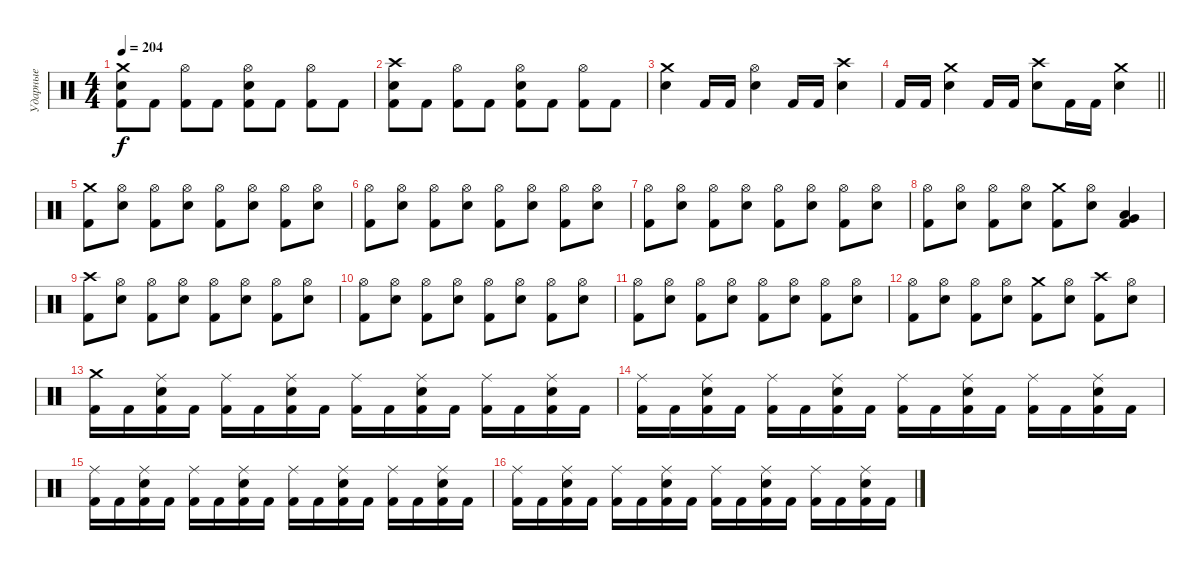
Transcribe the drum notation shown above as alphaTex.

\track ("Ударные" "Ударные") {instrument percussion}
\staff {score}
\articulation defaults
\ts (4 4)
\tempo 204
\clef neutral
\ks c
("Crash medium (hit)" "Snare (hit) 2" "Kick (hit) 2").8{dy f} "Kick (hit) 2".8 ("Hi-Hat (open)" "Kick (hit) 2").8 "Kick (hit) 2".8 ("Hi-Hat (open)" "Snare (hit) 2" "Kick (hit) 2").8 "Kick (hit) 2".8 ("Hi-Hat (open)" "Kick (hit) 2").8 "Kick (hit) 2".8 |
("Crash high (hit)" "Snare (hit) 2" "Kick (hit) 2").8 "Kick (hit) 2".8 ("Hi-Hat (open)" "Kick (hit) 2").8 "Kick (hit) 2".8 ("Hi-Hat (open)" "Snare (hit) 2" "Kick (hit) 2").8 "Kick (hit) 2".8 ("Hi-Hat (open)" "Kick (hit) 2").8 "Kick (hit) 2".8 |
("Crash medium (hit)" "Snare (hit) 2").4 "Kick (hit) 2".16 "Kick (hit) 2".16 ("Hi-Hat (open)" "Snare (hit) 2").4 "Kick (hit) 2".16 "Kick (hit) 2".16 ("Crash high (hit)" "Snare (hit) 2").4 |
\barLineRight lightlight "Kick (hit) 2".16 "Kick (hit) 2".16
("Crash medium (hit)" "Snare (hit) 2").4 "Kick (hit) 2".16 "Kick (hit) 2".16 ("Crash high (hit)" "Snare (hit) 2").8 "Kick (hit) 2".16 "Kick (hit) 2".16 ("Crash medium (hit)" "Snare (hit) 2").4 |
("Crash medium (hit)" "Kick (hit) 2").8 ("Hi-Hat (open)" "Snare (hit) 2").8 ("Hi-Hat (open)" "Kick (hit) 2").8 ("Hi-Hat (open)" "Snare (hit) 2").8 ("Hi-Hat (open)" "Kick (hit) 2").8 ("Hi-Hat (open)" "Snare (hit) 2").8 ("Hi-Hat (open)" "Kick (hit) 2").8 ("Hi-Hat (open)" "Snare (hit) 2").8 |
("Hi-Hat (open)" "Kick (hit) 2").8 ("Hi-Hat (open)" "Snare (hit) 2").8 ("Hi-Hat (open)" "Kick (hit) 2").8 ("Hi-Hat (open)" "Snare (hit) 2").8 ("Hi-Hat (open)" "Kick (hit) 2").8 ("Hi-Hat (open)" "Snare (hit) 2").8 ("Hi-Hat (open)" "Kick (hit) 2").8 ("Hi-Hat (open)" "Snare (hit) 2").8 |
("Hi-Hat (open)" "Kick (hit) 2").8 ("Hi-Hat (open)" "Snare (hit) 2").8 ("Hi-Hat (open)" "Kick (hit) 2").8 ("Hi-Hat (open)" "Snare (hit) 2").8 ("Hi-Hat (open)" "Kick (hit) 2").8 ("Hi-Hat (open)" "Snare (hit) 2").8 ("Hi-Hat (open)" "Kick (hit) 2").8 ("Hi-Hat (open)" "Snare (hit) 2").8 |
("Hi-Hat (open)" "Kick (hit) 2").8 ("Hi-Hat (open)" "Snare (hit) 2").8 ("Hi-Hat (open)" "Kick (hit) 2").8 ("Hi-Hat (open)" "Snare (hit) 2").8 ("Crash medium (hit)" "Kick (hit) 2").8 ("Hi-Hat (open)" "Snare (hit) 2").8 ("Low Tom (hit)" "Very Low Tom (hit)" "Kick (hit) 2").4 |
("Crash high (hit)" "Kick (hit) 2").8 ("Hi-Hat (open)" "Snare (hit) 2").8 ("Hi-Hat (open)" "Kick (hit) 2").8 ("Hi-Hat (open)" "Snare (hit) 2").8 ("Hi-Hat (open)" "Kick (hit) 2").8 ("Hi-Hat (open)" "Snare (hit) 2").8 ("Hi-Hat (open)" "Kick (hit) 2").8 ("Hi-Hat (open)" "Snare (hit) 2").8 |
("Hi-Hat (open)" "Kick (hit) 2").8 ("Hi-Hat (open)" "Snare (hit) 2").8 ("Hi-Hat (open)" "Kick (hit) 2").8 ("Hi-Hat (open)" "Snare (hit) 2").8 ("Hi-Hat (open)" "Kick (hit) 2").8 ("Hi-Hat (open)" "Snare (hit) 2").8 ("Hi-Hat (open)" "Kick (hit) 2").8 ("Hi-Hat (open)" "Snare (hit) 2").8 |
("Hi-Hat (open)" "Kick (hit) 2").8 ("Hi-Hat (open)" "Snare (hit) 2").8 ("Hi-Hat (open)" "Kick (hit) 2").8 ("Hi-Hat (open)" "Snare (hit) 2").8 ("Hi-Hat (open)" "Kick (hit) 2").8 ("Hi-Hat (open)" "Snare (hit) 2").8 ("Hi-Hat (open)" "Kick (hit) 2").8 ("Hi-Hat (open)" "Snare (hit) 2").8 |
("Hi-Hat (open)" "Kick (hit) 2").8 ("Hi-Hat (open)" "Snare (hit) 2").8 ("Hi-Hat (open)" "Kick (hit) 2").8 ("Hi-Hat (open)" "Snare (hit) 2").8 ("Crash medium (hit)" "Kick (hit) 2").8 ("Hi-Hat (open)" "Snare (hit) 2").8 ("Crash high (hit)" "Kick (hit) 2").8 ("Hi-Hat (open)" "Snare (hit) 2").8 |
("Crash medium (hit)" "Kick (hit) 2").16 "Kick (hit) 2".16 ("Ride (middle)" "Snare (hit) 2" "Kick (hit) 2").16 "Kick (hit) 2".16 ("Ride (middle)" "Kick (hit) 2").16 "Kick (hit) 2".16 ("Ride (middle)" "Snare (hit) 2" "Kick (hit) 2").16 "Kick (hit) 2".16 ("Ride (middle)" "Kick (hit) 2").16 "Kick (hit) 2".16 ("Ride (middle)" "Snare (hit) 2" "Kick (hit) 2").16 "Kick (hit) 2".16 ("Ride (middle)" "Kick (hit) 2").16 "Kick (hit) 2".16 ("Ride (middle)" "Snare (hit) 2" "Kick (hit) 2").16 "Kick (hit) 2".16 |
("Ride (middle)" "Kick (hit) 2").16 "Kick (hit) 2".16 ("Ride (middle)" "Snare (hit) 2" "Kick (hit) 2").16 "Kick (hit) 2".16 ("Ride (middle)" "Kick (hit) 2").16 "Kick (hit) 2".16 ("Ride (middle)" "Snare (hit) 2" "Kick (hit) 2").16 "Kick (hit) 2".16 ("Ride (middle)" "Kick (hit) 2").16 "Kick (hit) 2".16 ("Ride (middle)" "Snare (hit) 2" "Kick (hit) 2").16 "Kick (hit) 2".16 ("Ride (middle)" "Kick (hit) 2").16 "Kick (hit) 2".16 ("Ride (middle)" "Snare (hit) 2" "Kick (hit) 2").16 "Kick (hit) 2".16 |
("Ride (middle)" "Kick (hit) 2").16 "Kick (hit) 2".16 ("Ride (middle)" "Snare (hit) 2" "Kick (hit) 2").16 "Kick (hit) 2".16 ("Ride (middle)" "Kick (hit) 2").16 "Kick (hit) 2".16 ("Ride (middle)" "Snare (hit) 2" "Kick (hit) 2").16 "Kick (hit) 2".16 ("Ride (middle)" "Kick (hit) 2").16 "Kick (hit) 2".16 ("Ride (middle)" "Snare (hit) 2" "Kick (hit) 2").16 "Kick (hit) 2".16 ("Ride (middle)" "Kick (hit) 2").16 "Kick (hit) 2".16 ("Ride (middle)" "Snare (hit) 2" "Kick (hit) 2").16 "Kick (hit) 2".16 |
("Ride (middle)" "Kick (hit) 2").16 "Kick (hit) 2".16 ("Ride (middle)" "Snare (hit) 2" "Kick (hit) 2").16 "Kick (hit) 2".16 ("Ride (middle)" "Kick (hit) 2").16 "Kick (hit) 2".16 ("Ride (middle)" "Snare (hit) 2" "Kick (hit) 2").16 "Kick (hit) 2".16 ("Ride (middle)" "Kick (hit) 2").16 "Kick (hit) 2".16 ("Ride (middle)" "Snare (hit) 2" "Kick (hit) 2").16 "Kick (hit) 2".16 ("Ride (middle)" "Kick (hit) 2").16 "Kick (hit) 2".16 ("Ride (middle)" "Snare (hit) 2" "Kick (hit) 2").16 "Kick (hit) 2".16
